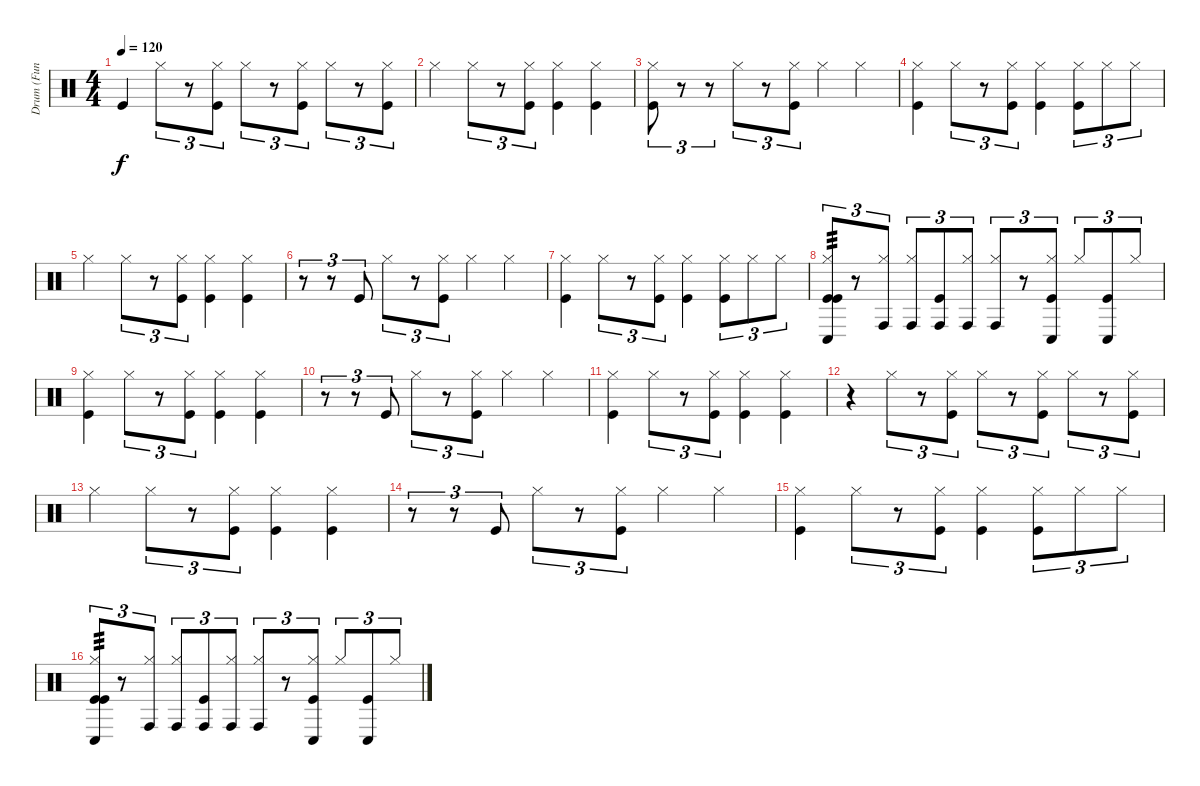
\track ("Drum (Fun Track)" "Drum (Fun ") {instrument percussion}
\staff {score}
\articulation defaults
\ts (4 4)
\tempo 120
\clef neutral
\ks c "Kick (hit)".4{dy f} "Hi-Hat (closed)".8{tu (3 2)}
r.8{tu (3 2)} ("Hi-Hat (closed)" "Kick (hit)").8{tu (3 2)} "Hi-Hat (closed)".8{tu (3 2)} r.8{tu (3 2)} ("Hi-Hat (closed)" "Kick (hit)").8{tu (3 2)} "Hi-Hat (closed)".8{tu (3 2)} r.8{tu (3 2)} ("Hi-Hat (closed)" "Kick (hit)").8{tu (3 2)} |
"Hi-Hat (closed)".4 "Hi-Hat (closed)".8{tu (3 2)} r.8{tu (3 2)} ("Hi-Hat (closed)" "Kick (hit)").8{tu (3 2)} ("Hi-Hat (closed)" "Kick (hit)").4 ("Hi-Hat (closed)" "Kick (hit)").4 |
("Hi-Hat (closed)" "Kick (hit)").8{tu (3 2)} r.8{tu (3 2)} r.8{tu (3 2)} "Hi-Hat (closed)".8{tu (3 2)} r.8{tu (3 2)} ("Hi-Hat (closed)" "Kick (hit)").8{tu (3 2)} "Hi-Hat (closed)".4 "Hi-Hat (closed)".4 |
("Hi-Hat (closed)" "Kick (hit)").4 "Hi-Hat (closed)".8{tu (3 2)} r.8{tu (3 2)} ("Hi-Hat (closed)" "Kick (hit)").8{tu (3 2)} ("Hi-Hat (closed)" "Kick (hit)").4 ("Hi-Hat (closed)" "Kick (hit)").8{tu (3 2)} "Hi-Hat (closed)".8{tu (3 2)} "Hi-Hat (closed)".8{tu (3 2)} |
"Hi-Hat (closed)".4 "Hi-Hat (closed)".8{tu (3 2)} r.8{tu (3 2)} ("Hi-Hat (closed)" "Kick (hit)").8{tu (3 2)} ("Hi-Hat (closed)" "Kick (hit)").4 ("Hi-Hat (closed)" "Kick (hit)").4 |
r.8{tu (3 2)} r.8{tu (3 2)} "Kick (hit)".8{tu (3 2)} "Hi-Hat (closed)".8{tu (3 2)} r.8{tu (3 2)} ("Hi-Hat (closed)" "Kick (hit)").8{tu (3 2)} "Hi-Hat (closed)".4 "Hi-Hat (closed)".4 |
("Hi-Hat (closed)" "Kick (hit)").4 "Hi-Hat (closed)".8{tu (3 2)} r.8{tu (3 2)} ("Hi-Hat (closed)" "Kick (hit)").8{tu (3 2)} ("Hi-Hat (closed)" "Kick (hit)").4 ("Hi-Hat (closed)" "Kick (hit)").8{tu (3 2)} "Hi-Hat (closed)".8{tu (3 2)} "Hi-Hat (closed)".8{tu (3 2)} |
("Hi-Hat (closed)" "Conga low (hit)" "Kick (hit)" "Kick (hit)").8{tu (3 2) tp 3} r.8{tu (3 2)} ("Hi-Hat (closed)" "Conga high (hit)").8{tu (3 2)} ("Hi-Hat (closed)" "Conga high (hit)").8{tu (3 2)} ("Conga high (hit)" "Kick (hit)").8{tu (3 2)} ("Hi-Hat (closed)" "Conga high (hit)").8{tu (3 2)} ("Hi-Hat (closed)" "Conga high (hit)").8{tu (3 2)} r.8{tu (3 2)} ("Hi-Hat (closed)" "Kick (hit)" "Conga low (hit)").8{tu (3 2)} "Hi-Hat (closed)".8{tu (3 2)} ("Kick (hit)" "Conga low (hit)").8{tu (3 2)} "Hi-Hat (closed)".8{tu (3 2)} |
("Hi-Hat (closed)" "Kick (hit)").4 "Hi-Hat (closed)".8{tu (3 2)} r.8{tu (3 2)} ("Hi-Hat (closed)" "Kick (hit)").8{tu (3 2)} ("Hi-Hat (closed)" "Kick (hit)").4 ("Hi-Hat (closed)" "Kick (hit)").4 |
r.8{tu (3 2)} r.8{tu (3 2)} "Kick (hit)".8{tu (3 2)} "Hi-Hat (closed)".8{tu (3 2)} r.8{tu (3 2)} ("Hi-Hat (closed)" "Kick (hit)").8{tu (3 2)} "Hi-Hat (closed)".4 "Hi-Hat (closed)".4 |
("Hi-Hat (closed)" "Kick (hit)").4 "Hi-Hat (closed)".8{tu (3 2)} r.8{tu (3 2)} ("Hi-Hat (closed)" "Kick (hit)").8{tu (3 2)} ("Hi-Hat (closed)" "Kick (hit)").4 ("Hi-Hat (closed)" "Kick (hit)").4 |
r.4 "Hi-Hat (closed)".8{tu (3 2)} r.8{tu (3 2)} ("Hi-Hat (closed)" "Kick (hit)").8{tu (3 2)} "Hi-Hat (closed)".8{tu (3 2)} r.8{tu (3 2)} ("Hi-Hat (closed)" "Kick (hit)").8{tu (3 2)} "Hi-Hat (closed)".8{tu (3 2)} r.8{tu (3 2)} ("Hi-Hat (closed)" "Kick (hit)").8{tu (3 2)} |
"Hi-Hat (closed)".4 "Hi-Hat (closed)".8{tu (3 2)} r.8{tu (3 2)} ("Hi-Hat (closed)" "Kick (hit)").8{tu (3 2)} ("Hi-Hat (closed)" "Kick (hit)").4 ("Hi-Hat (closed)" "Kick (hit)").4 |
r.8{tu (3 2)} r.8{tu (3 2)} "Kick (hit)".8{tu (3 2)} "Hi-Hat (closed)".8{tu (3 2)} r.8{tu (3 2)} ("Hi-Hat (closed)" "Kick (hit)").8{tu (3 2)} "Hi-Hat (closed)".4 "Hi-Hat (closed)".4 |
("Hi-Hat (closed)" "Kick (hit)").4 "Hi-Hat (closed)".8{tu (3 2)} r.8{tu (3 2)} ("Hi-Hat (closed)" "Kick (hit)").8{tu (3 2)} ("Hi-Hat (closed)" "Kick (hit)").4 ("Hi-Hat (closed)" "Kick (hit)").8{tu (3 2)} "Hi-Hat (closed)".8{tu (3 2)} "Hi-Hat (closed)".8{tu (3 2)} |
("Hi-Hat (closed)" "Conga low (hit)" "Kick (hit)" "Kick (hit)").8{tu (3 2) tp 3} r.8{tu (3 2)} ("Hi-Hat (closed)" "Conga high (hit)").8{tu (3 2)} ("Hi-Hat (closed)" "Conga high (hit)").8{tu (3 2)} ("Conga high (hit)" "Kick (hit)").8{tu (3 2)} ("Hi-Hat (closed)" "Conga high (hit)").8{tu (3 2)} ("Hi-Hat (closed)" "Conga high (hit)").8{tu (3 2)} r.8{tu (3 2)} ("Hi-Hat (closed)" "Kick (hit)" "Conga low (hit)").8{tu (3 2)} "Hi-Hat (closed)".8{tu (3 2)} ("Kick (hit)" "Conga low (hit)").8{tu (3 2)} "Hi-Hat (closed)".8{tu (3 2)}
